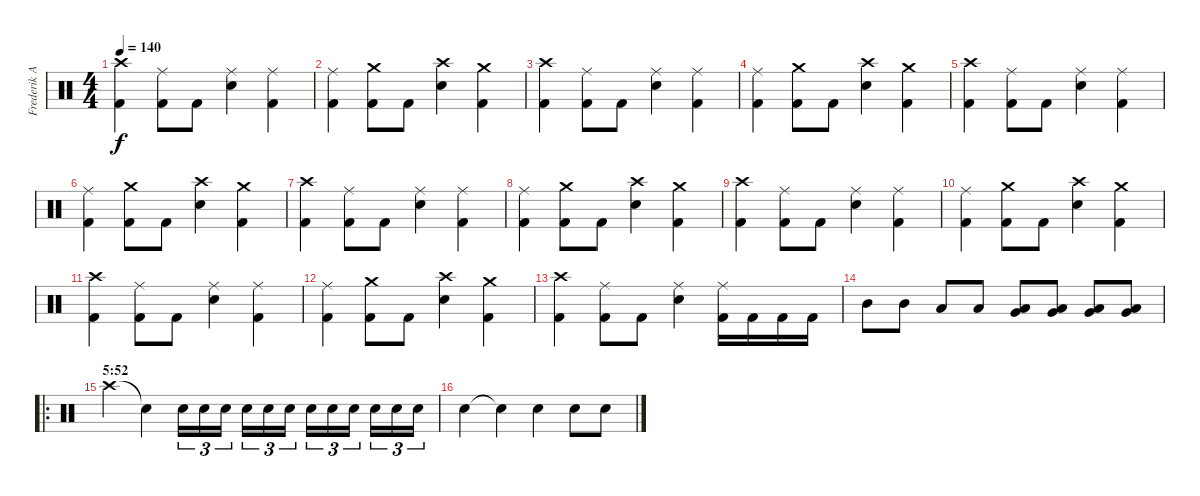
\track ("Frederik Anderson" "Frederik A") {instrument percussion}
\staff {score}
\articulation defaults
\ts (4 4)
\tempo 140
\clef neutral
\ks c
("Crash high (hit)" "Kick (hit) 2").4{dy f} ("Ride (middle)" "Kick (hit) 2").8 "Kick (hit) 2".8 ("Ride (middle)" "Electric Snare (hit)").4 ("Ride (middle)" "Kick (hit) 2").4 |
("Ride (middle)" "Kick (hit) 2").4 ("Crash medium (hit)" "Kick (hit) 2").8 "Kick (hit) 2".8 ("Crash high (hit)" "Electric Snare (hit)").4 ("Crash medium (hit)" "Kick (hit) 2").4 |
("Crash high (hit)" "Kick (hit) 2").4 ("Ride (middle)" "Kick (hit) 2").8 "Kick (hit) 2".8 ("Ride (middle)" "Electric Snare (hit)").4 ("Ride (middle)" "Kick (hit) 2").4 |
("Ride (middle)" "Kick (hit) 2").4 ("Crash medium (hit)" "Kick (hit) 2").8 "Kick (hit) 2".8 ("Crash high (hit)" "Electric Snare (hit)").4 ("Crash medium (hit)" "Kick (hit) 2").4 |
("Crash high (hit)" "Kick (hit) 2").4 ("Ride (middle)" "Kick (hit) 2").8 "Kick (hit) 2".8 ("Ride (middle)" "Electric Snare (hit)").4 ("Ride (middle)" "Kick (hit) 2").4 |
("Ride (middle)" "Kick (hit) 2").4 ("Crash medium (hit)" "Kick (hit) 2").8 "Kick (hit) 2".8 ("Crash high (hit)" "Electric Snare (hit)").4 ("Crash medium (hit)" "Kick (hit) 2").4 |
("Crash high (hit)" "Kick (hit) 2").4 ("Ride (middle)" "Kick (hit) 2").8 "Kick (hit) 2".8 ("Ride (middle)" "Electric Snare (hit)").4 ("Ride (middle)" "Kick (hit) 2").4 |
("Ride (middle)" "Kick (hit) 2").4 ("Crash medium (hit)" "Kick (hit) 2").8 "Kick (hit) 2".8 ("Crash high (hit)" "Electric Snare (hit)").4 ("Crash medium (hit)" "Kick (hit) 2").4 |
("Crash high (hit)" "Kick (hit) 2").4 ("Ride (middle)" "Kick (hit) 2").8 "Kick (hit) 2".8 ("Ride (middle)" "Electric Snare (hit)").4 ("Ride (middle)" "Kick (hit) 2").4 |
("Ride (middle)" "Kick (hit) 2").4 ("Crash medium (hit)" "Kick (hit) 2").8 "Kick (hit) 2".8 ("Crash high (hit)" "Electric Snare (hit)").4 ("Crash medium (hit)" "Kick (hit) 2").4 |
("Crash high (hit)" "Kick (hit) 2").4 ("Ride (middle)" "Kick (hit) 2").8 "Kick (hit) 2".8 ("Ride (middle)" "Electric Snare (hit)").4 ("Ride (middle)" "Kick (hit) 2").4 |
("Ride (middle)" "Kick (hit) 2").4 ("Crash medium (hit)" "Kick (hit) 2").8 "Kick (hit) 2".8 ("Crash high (hit)" "Electric Snare (hit)").4 ("Crash medium (hit)" "Kick (hit) 2").4 |
("Crash high (hit)" "Kick (hit) 2").4 ("Ride (middle)" "Kick (hit) 2").8 "Kick (hit) 2".8 ("Ride (middle)" "Electric Snare (hit)").4 ("Ride (middle)" "Kick (hit) 2").16 "Kick (hit) 2".16 "Kick (hit) 2".16 "Kick (hit) 2".16 |
"Mid Tom (hit)".8 "Mid Tom (hit)".8 "Low Tom (hit)".8 "Low Tom (hit)".8 ("Low Tom (hit)" "Very Low Tom (hit)").8 ("Low Tom (hit)" "Very Low Tom (hit)").8 ("Very Low Tom (hit)" "Low Floor Tom (hit)").8 ("Very Low Tom (hit)" "Low Floor Tom (hit)").8 |
\ro
\section ("" "5:52")
"Crash high (hit)".4 "Snare (hit)"{t}.4 "Electric Snare (hit)".16{tu (3 2)} "Electric Snare (hit)".16{tu (3 2)} "Electric Snare (hit)".16{tu (3 2)} "Electric Snare (hit)".16{tu (3 2)} "Electric Snare (hit)".16{tu (3 2)} "Electric Snare (hit)".16{tu (3 2)} "Electric Snare (hit)".16{tu (3 2)} "Electric Snare (hit)".16{tu (3 2)} "Electric Snare (hit)".16{tu (3 2)} "Electric Snare (hit)".16{tu (3 2)} "Electric Snare (hit)".16{tu (3 2)} "Electric Snare (hit)".16{tu (3 2)} |
"Electric Snare (hit)".4 "Electric Snare (hit)"{t}.4 "Electric Snare (hit)".4 "Electric Snare (hit)".8 "Electric Snare (hit)".8
